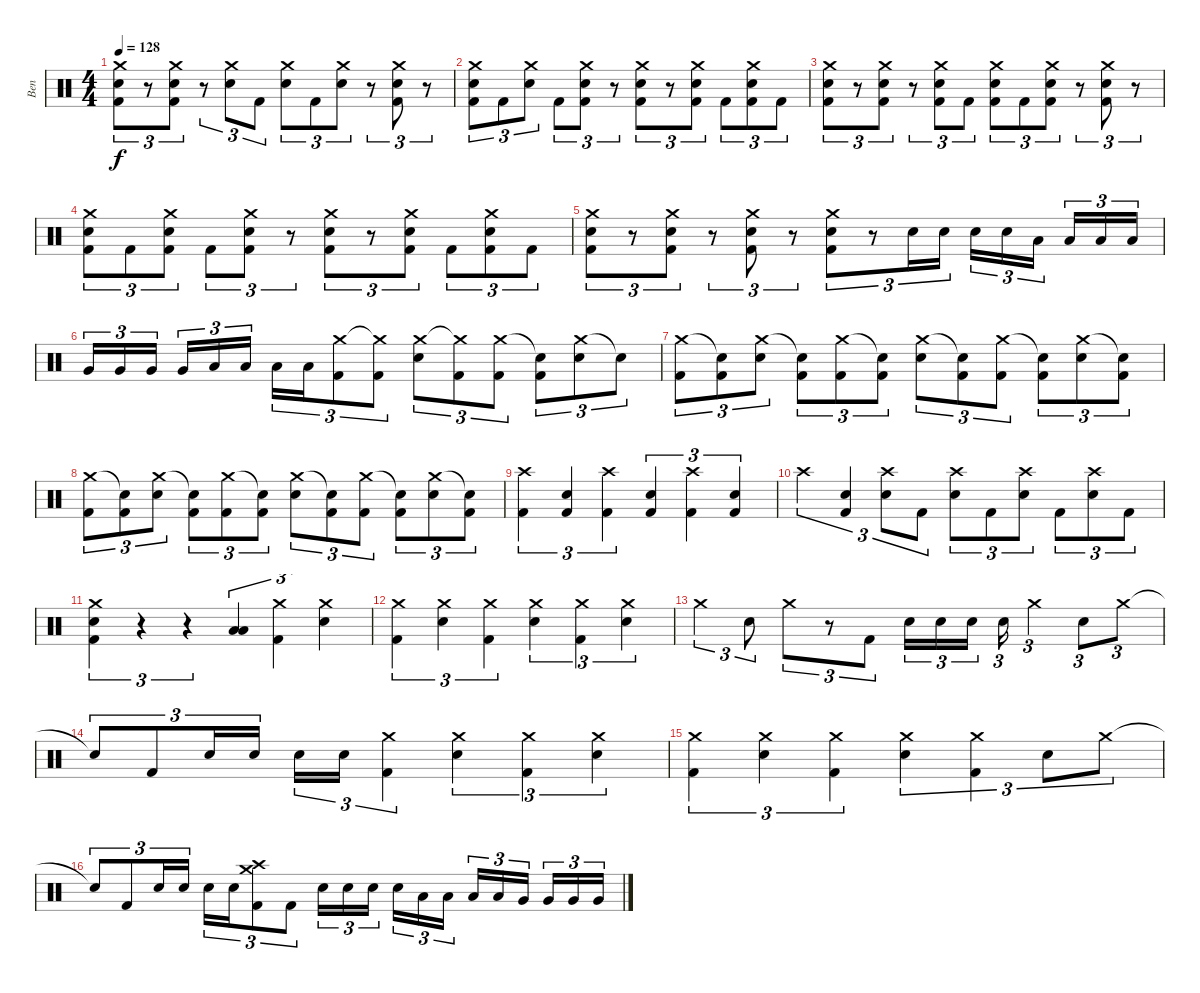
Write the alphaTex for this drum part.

\track ("Ben" "Ben") {instrument percussion}
\staff {score}
\articulation defaults
\ts (4 4)
\tempo 128
\clef neutral
\ks c
("Crash medium (hit)" "Electric Snare (hit)" "Kick (hit) 2").8{tu (3 2) dy f} r.8{tu (3 2)} ("Crash medium (hit)" "Electric Snare (hit)" "Kick (hit) 2").8{tu (3 2)} r.8{tu (3 2)} ("Crash medium (hit)" "Electric Snare (hit)").8{tu (3 2)} "Kick (hit) 2".8{tu (3 2)} ("Crash medium (hit)" "Electric Snare (hit)").8{tu (3 2)} "Kick (hit) 2".8{tu (3 2)} ("Crash medium (hit)" "Electric Snare (hit)").8{tu (3 2)} r.8{tu (3 2)} ("Crash medium (hit)" "Electric Snare (hit)" "Kick (hit) 2").8{tu (3 2)} r.8{tu (3 2)} |
("Crash medium (hit)" "Electric Snare (hit)" "Kick (hit) 2").8{tu (3 2)} "Kick (hit) 2".8{tu (3 2)} ("Crash medium (hit)" "Electric Snare (hit)").8{tu (3 2)} "Kick (hit) 2".8{tu (3 2)} ("Crash medium (hit)" "Electric Snare (hit)" "Kick (hit) 2").8{tu (3 2)} r.8{tu (3 2)} ("Crash medium (hit)" "Electric Snare (hit)" "Kick (hit) 2").8{tu (3 2)} r.8{tu (3 2)} ("Crash medium (hit)" "Electric Snare (hit)" "Kick (hit) 2").8{tu (3 2)} "Kick (hit) 2".8{tu (3 2)} ("Crash medium (hit)" "Electric Snare (hit)" "Kick (hit) 2").8{tu (3 2)} "Kick (hit) 2".8{tu (3 2)} |
("Crash medium (hit)" "Electric Snare (hit)" "Kick (hit) 2").8{tu (3 2)} r.8{tu (3 2)} ("Crash medium (hit)" "Electric Snare (hit)" "Kick (hit) 2").8{tu (3 2)} r.8{tu (3 2)} ("Crash medium (hit)" "Electric Snare (hit)" "Kick (hit) 2").8{tu (3 2)} "Kick (hit) 2".8{tu (3 2)} ("Crash medium (hit)" "Electric Snare (hit)" "Kick (hit) 2").8{tu (3 2)} "Kick (hit) 2".8{tu (3 2)} ("Crash medium (hit)" "Electric Snare (hit)" "Kick (hit) 2").8{tu (3 2)} r.8{tu (3 2)} ("Crash medium (hit)" "Electric Snare (hit)" "Kick (hit) 2").8{tu (3 2)} r.8{tu (3 2)} |
("Crash medium (hit)" "Electric Snare (hit)" "Kick (hit) 2").8{tu (3 2)} "Kick (hit) 2".8{tu (3 2)} ("Crash medium (hit)" "Electric Snare (hit)" "Kick (hit) 2").8{tu (3 2)} "Kick (hit) 2".8{tu (3 2)} ("Crash medium (hit)" "Electric Snare (hit)" "Kick (hit) 2").8{tu (3 2)} r.8{tu (3 2)} ("Crash medium (hit)" "Electric Snare (hit)" "Kick (hit) 2").8{tu (3 2)} r.8{tu (3 2)} ("Crash medium (hit)" "Electric Snare (hit)" "Kick (hit) 2").8{tu (3 2)} "Kick (hit) 2".8{tu (3 2)} ("Crash medium (hit)" "Electric Snare (hit)" "Kick (hit) 2").8{tu (3 2)} "Kick (hit) 2".8{tu (3 2)} |
("Crash medium (hit)" "Electric Snare (hit)" "Kick (hit) 2").8{tu (3 2)} r.8{tu (3 2)} ("Crash medium (hit)" "Electric Snare (hit)" "Kick (hit) 2").8{tu (3 2)} r.8{tu (3 2)} ("Crash medium (hit)" "Electric Snare (hit)" "Kick (hit) 2").8{tu (3 2)} r.8{tu (3 2)} ("Crash medium (hit)" "Electric Snare (hit)" "Kick (hit) 2").8{tu (3 2)} r.8{tu (3 2)} "Electric Snare (hit)".16{tu (3 2)} "Electric Snare (hit)".16{tu (3 2)} "Electric Snare (hit)".16{tu (3 2)} "Electric Snare (hit)".16{tu (3 2)} "Low Tom (hit)".16{tu (3 2)} "Low Tom (hit)".16{tu (3 2)} "Low Tom (hit)".16{tu (3 2)} "Low Tom (hit)".16{tu (3 2)} |
"Very Low Tom (hit)".16{tu (3 2)} "Very Low Tom (hit)".16{tu (3 2)} "Very Low Tom (hit)".16{tu (3 2)} "Very Low Tom (hit)".16{tu (3 2)} "Low Floor Tom (hit)".16{tu (3 2)} "Low Floor Tom (hit)".16{tu (3 2)} "Low Floor Tom (hit)".16{tu (3 2)} "Low Floor Tom (hit)".16{tu (3 2)} ("Crash medium (hit)" "Kick (hit) 2").8{tu (3 2)} ("Crash medium (hit)"{t} "Kick (hit) 2").8{tu (3 2)} ("Crash medium (hit)" "Electric Snare (hit)").8{tu (3 2)} ("Crash medium (hit)"{t} "Kick (hit) 2").8{tu (3 2)} ("Crash medium (hit)" "Kick (hit) 2").8{tu (3 2)} ("Snare (hit)"{t} "Kick (hit) 2").8{tu (3 2)} ("Crash medium (hit)" "Electric Snare (hit)").8{tu (3 2)} "Snare (hit)"{t}.8{tu (3 2)} |
("Crash medium (hit)" "Kick (hit) 2").8{tu (3 2)} ("Snare (hit)"{t} "Kick (hit) 2").8{tu (3 2)} ("Crash medium (hit)" "Electric Snare (hit)").8{tu (3 2)} ("Snare (hit)"{t} "Kick (hit) 2").8{tu (3 2)} ("Crash medium (hit)" "Kick (hit) 2").8{tu (3 2)} ("Snare (hit)"{t} "Kick (hit) 2").8{tu (3 2)} ("Crash medium (hit)" "Electric Snare (hit)").8{tu (3 2)} ("Snare (hit)"{t} "Kick (hit) 2").8{tu (3 2)} ("Crash medium (hit)" "Kick (hit) 2").8{tu (3 2)} ("Snare (hit)"{t} "Kick (hit) 2").8{tu (3 2)} ("Crash medium (hit)" "Electric Snare (hit)").8{tu (3 2)} ("Snare (hit)"{t} "Kick (hit) 2").8{tu (3 2)} |
("Crash medium (hit)" "Kick (hit) 2").8{tu (3 2)} ("Snare (hit)"{t} "Kick (hit) 2").8{tu (3 2)} ("Crash medium (hit)" "Electric Snare (hit)").8{tu (3 2)} ("Snare (hit)"{t} "Kick (hit) 2").8{tu (3 2)} ("Crash medium (hit)" "Kick (hit) 2").8{tu (3 2)} ("Snare (hit)"{t} "Kick (hit) 2").8{tu (3 2)} ("Crash medium (hit)" "Electric Snare (hit)").8{tu (3 2)} ("Snare (hit)"{t} "Kick (hit) 2").8{tu (3 2)} ("Crash medium (hit)" "Kick (hit) 2").8{tu (3 2)} ("Snare (hit)"{t} "Kick (hit) 2").8{tu (3 2)} ("Crash medium (hit)" "Electric Snare (hit)").8{tu (3 2)} ("Snare (hit)"{t} "Kick (hit) 2").8{tu (3 2)} |
("Crash high (hit)" "Kick (hit) 2").4{tu (3 2)} ("Electric Snare (hit)" "Kick (hit) 2").4{tu (3 2)} ("Crash high (hit)" "Kick (hit) 2").4{tu (3 2)} ("Electric Snare (hit)" "Kick (hit) 2").4{tu (3 2)} ("Crash high (hit)" "Kick (hit) 2").4{tu (3 2)} ("Electric Snare (hit)" "Kick (hit) 2").4{tu (3 2)} |
"Crash high (hit)".4{tu (3 2)} ("Electric Snare (hit)" "Kick (hit) 2").4{tu (3 2)} ("Crash high (hit)" "Electric Snare (hit)").8{tu (3 2)} "Kick (hit) 2".8{tu (3 2)} ("Crash high (hit)" "Electric Snare (hit)").8{tu (3 2)} "Kick (hit) 2".8{tu (3 2)} ("Crash high (hit)" "Electric Snare (hit)").8{tu (3 2)} "Kick (hit) 2".8{tu (3 2)} ("Crash high (hit)" "Electric Snare (hit)").8{tu (3 2)} "Kick (hit) 2".8{tu (3 2)} |
("Crash medium (hit)" "Electric Snare (hit)" "Kick (hit) 2").4{tu (3 2)} r.4{tu (3 2)} r.4{tu (3 2)} ("Low Tom (hit)" "Low Floor Tom (hit)").4{tu (3 2)} ("Crash medium (hit)" "Kick (hit) 2").4{tu (3 2)} ("Crash medium (hit)" "Electric Snare (hit)").4{tu (3 2)} |
("Crash medium (hit)" "Kick (hit) 2").4{tu (3 2)} ("Crash medium (hit)" "Electric Snare (hit)").4{tu (3 2)} ("Crash medium (hit)" "Kick (hit) 2").4{tu (3 2)} ("Crash medium (hit)" "Electric Snare (hit)").4{tu (3 2)} ("Crash medium (hit)" "Kick (hit) 2").4{tu (3 2)} ("Crash medium (hit)" "Electric Snare (hit)").4{tu (3 2)} |
"Crash medium (hit)".4{tu (3 2)} "Electric Snare (hit)".8{tu (3 2)} "Crash medium (hit)".8{tu (3 2)} r.8{tu (3 2)} "Kick (hit) 2".8{tu (3 2)} "Electric Snare (hit)".16{tu (3 2)} "Electric Snare (hit)".16{tu (3 2)} "Electric Snare (hit)".16{tu (3 2)} "Electric Snare (hit)".16{tu (3 2)} "Crash medium (hit)".4{tu (3 2)} "Electric Snare (hit)".8{tu (3 2)} "Crash medium (hit)".8{tu (3 2)} |
"Snare (hit)"{t}.8{tu (3 2)} "Kick (hit) 2".8{tu (3 2)} "Electric Snare (hit)".16{tu (3 2)} "Electric Snare (hit)".16{tu (3 2)} "Electric Snare (hit)".16{tu (3 2)} "Electric Snare (hit)".16{tu (3 2)} ("Crash medium (hit)" "Kick (hit) 2").4{tu (3 2)} ("Crash medium (hit)" "Electric Snare (hit)").4{tu (3 2)} ("Crash medium (hit)" "Kick (hit) 2").4{tu (3 2)} ("Crash medium (hit)" "Electric Snare (hit)").4{tu (3 2)} |
("Crash medium (hit)" "Kick (hit) 2").4{tu (3 2)} ("Crash medium (hit)" "Electric Snare (hit)").4{tu (3 2)} ("Crash medium (hit)" "Kick (hit) 2").4{tu (3 2)} ("Crash medium (hit)" "Electric Snare (hit)").4{tu (3 2)} ("Crash medium (hit)" "Kick (hit) 2").4{tu (3 2)} "Electric Snare (hit)".8{tu (3 2)} "Crash medium (hit)".8{tu (3 2)} |
"Snare (hit)"{t}.8{tu (3 2)} "Kick (hit) 2".8{tu (3 2)} "Electric Snare (hit)".16{tu (3 2)} "Electric Snare (hit)".16{tu (3 2)} "Electric Snare (hit)".16{tu (3 2)} "Electric Snare (hit)".16{tu (3 2)} ("Crash high (hit)" "Crash medium (hit)" "Kick (hit) 2").8{tu (3 2)} "Kick (hit) 2".8{tu (3 2)} "Electric Snare (hit)".16{tu (3 2)} "Electric Snare (hit)".16{tu (3 2)} "Electric Snare (hit)".16{tu (3 2)} "Electric Snare (hit)".16{tu (3 2)} "Low Tom (hit)".16{tu (3 2)} "Low Tom (hit)".16{tu (3 2)} "Low Tom (hit)".16{tu (3 2)} "Low Tom (hit)".16{tu (3 2)} "Very Low Tom (hit)".16{tu (3 2)} "Very Low Tom (hit)".16{tu (3 2)} "Very Low Tom (hit)".16{tu (3 2)} "Very Low Tom (hit)".16{tu (3 2)}
